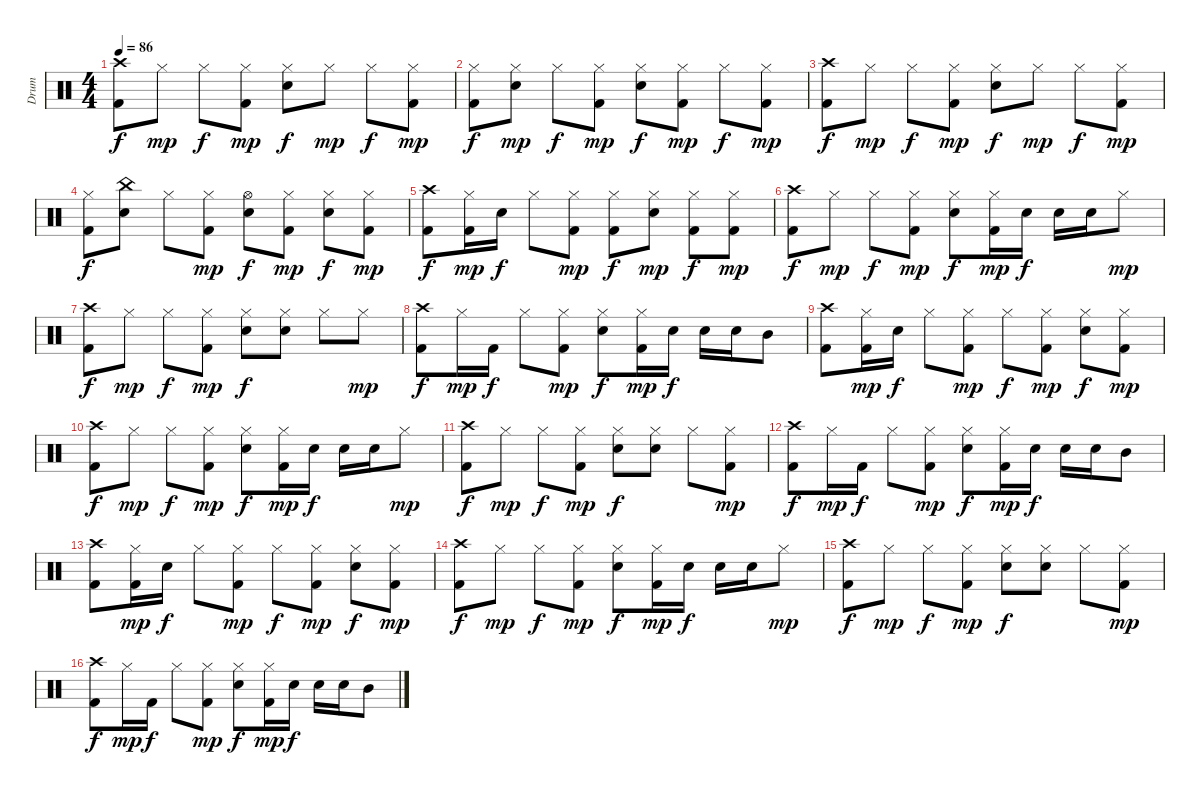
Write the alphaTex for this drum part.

\track ("Drum" "Drum") {instrument percussion}
\staff {score}
\articulation defaults
\ts (4 4)
\tempo 86
\clef neutral
\ks c
("Crash high (hit)" "Kick (hit) 2").8{dy f} "Hi-Hat (closed)".8{dy mp} "Hi-Hat (closed)".8{dy f} ("Hi-Hat (closed)" "Kick (hit) 2").8{dy mp} ("Hi-Hat (closed)" "Electric Snare (hit)").8{dy f} "Hi-Hat (closed)".8{dy mp} "Hi-Hat (closed)".8{dy f} ("Hi-Hat (closed)" "Kick (hit) 2").8{dy mp} |
("Hi-Hat (closed)" "Kick (hit) 2").8{dy f} ("Hi-Hat (closed)" "Electric Snare (hit)").8{dy mp} "Hi-Hat (closed)".8{dy f} ("Hi-Hat (closed)" "Kick (hit) 2").8{dy mp} ("Hi-Hat (closed)" "Electric Snare (hit)").8{dy f} ("Hi-Hat (closed)" "Kick (hit) 2").8{dy mp} "Hi-Hat (closed)".8{dy f} ("Hi-Hat (closed)" "Kick (hit) 2").8{dy mp} |
("Crash high (hit)" "Kick (hit) 2").8{dy f} "Hi-Hat (closed)".8{dy mp} "Hi-Hat (closed)".8{dy f} ("Hi-Hat (closed)" "Kick (hit) 2").8{dy mp} ("Hi-Hat (closed)" "Electric Snare (hit)").8{dy f} "Hi-Hat (closed)".8{dy mp} "Hi-Hat (closed)".8{dy f} ("Hi-Hat (closed)" "Kick (hit) 2").8{dy mp} |
("Hi-Hat (closed)" "Kick (hit) 2").8{dy f} ("China (hit)" "Electric Snare (hit)").8 "Hi-Hat (closed)".8 ("Hi-Hat (closed)" "Kick (hit) 2").8{dy mp} ("Hi-Hat (open)" "Electric Snare (hit)").8{dy f} ("Hi-Hat (closed)" "Kick (hit) 2").8{dy mp} ("Hi-Hat (closed)" "Electric Snare (hit)").8{dy f} ("Hi-Hat (closed)" "Kick (hit) 2").8{dy mp} |
("Crash high (hit)" "Kick (hit) 2").8{dy f} ("Hi-Hat (closed)" "Kick (hit) 2").16{dy mp} "Electric Snare (hit)".16{dy f} "Hi-Hat (closed)".8 ("Hi-Hat (closed)" "Kick (hit) 2").8{dy mp} ("Hi-Hat (closed)" "Kick (hit) 2").8{dy f} ("Hi-Hat (closed)" "Electric Snare (hit)").8{dy mp} ("Hi-Hat (closed)" "Kick (hit) 2").8{dy f} ("Hi-Hat (closed)" "Kick (hit) 2").8{dy mp} |
("Crash high (hit)" "Kick (hit) 2").8{dy f} "Hi-Hat (closed)".8{dy mp} "Hi-Hat (closed)".8{dy f} ("Hi-Hat (closed)" "Kick (hit) 2").8{dy mp} ("Hi-Hat (closed)" "Electric Snare (hit)").8{dy f} ("Hi-Hat (closed)" "Kick (hit) 2").16{dy mp} "Electric Snare (hit)".16{dy f} "Electric Snare (hit)".16 "Electric Snare (hit)".16 "Hi-Hat (closed)".8{dy mp} |
("Crash high (hit)" "Kick (hit) 2").8{dy f} "Hi-Hat (closed)".8{dy mp} "Hi-Hat (closed)".8{dy f} ("Hi-Hat (closed)" "Kick (hit) 2").8{dy mp} ("Hi-Hat (closed)" "Electric Snare (hit)").8{dy f} ("Hi-Hat (closed)" "Electric Snare (hit)").8 "Hi-Hat (closed)".8 "Hi-Hat (closed)".8{dy mp} |
("Crash high (hit)" "Kick (hit) 2").8{dy f} "Hi-Hat (closed)".16{dy mp} "Kick (hit) 2".16{dy f} "Hi-Hat (closed)".8 ("Hi-Hat (closed)" "Kick (hit) 2").8{dy mp} ("Hi-Hat (closed)" "Electric Snare (hit)").8{dy f} ("Hi-Hat (closed)" "Kick (hit) 2").16{dy mp} "Electric Snare (hit)".16{dy f} "Electric Snare (hit)".16 "Electric Snare (hit)".16 "Mid Tom (hit)".8 |
("Crash high (hit)" "Kick (hit) 2").8 ("Hi-Hat (closed)" "Kick (hit) 2").16{dy mp} "Electric Snare (hit)".16{dy f} "Hi-Hat (closed)".8 ("Hi-Hat (closed)" "Kick (hit) 2").8{dy mp} "Hi-Hat (closed)".8{dy f} ("Hi-Hat (closed)" "Kick (hit) 2").8{dy mp} ("Hi-Hat (closed)" "Electric Snare (hit)").8{dy f} ("Hi-Hat (closed)" "Kick (hit) 2").8{dy mp} |
("Crash high (hit)" "Kick (hit) 2").8{dy f} "Hi-Hat (closed)".8{dy mp} "Hi-Hat (closed)".8{dy f} ("Hi-Hat (closed)" "Kick (hit) 2").8{dy mp} ("Hi-Hat (closed)" "Electric Snare (hit)").8{dy f} ("Hi-Hat (closed)" "Kick (hit) 2").16{dy mp} "Electric Snare (hit)".16{dy f} "Electric Snare (hit)".16 "Electric Snare (hit)".16 "Hi-Hat (closed)".8{dy mp} |
("Crash high (hit)" "Kick (hit) 2").8{dy f} "Hi-Hat (closed)".8{dy mp} "Hi-Hat (closed)".8{dy f} ("Hi-Hat (closed)" "Kick (hit) 2").8{dy mp} ("Hi-Hat (closed)" "Electric Snare (hit)").8{dy f} ("Hi-Hat (closed)" "Electric Snare (hit)").8 "Hi-Hat (closed)".8 ("Hi-Hat (closed)" "Kick (hit) 2").8{dy mp} |
("Crash high (hit)" "Kick (hit) 2").8{dy f} "Hi-Hat (closed)".16{dy mp} "Kick (hit) 2".16{dy f} "Hi-Hat (closed)".8 ("Hi-Hat (closed)" "Kick (hit) 2").8{dy mp} ("Hi-Hat (closed)" "Electric Snare (hit)").8{dy f} ("Hi-Hat (closed)" "Kick (hit) 2").16{dy mp} "Electric Snare (hit)".16{dy f} "Electric Snare (hit)".16 "Electric Snare (hit)".16 "Mid Tom (hit)".8 |
("Crash high (hit)" "Kick (hit) 2").8 ("Hi-Hat (closed)" "Kick (hit) 2").16{dy mp} "Electric Snare (hit)".16{dy f} "Hi-Hat (closed)".8 ("Hi-Hat (closed)" "Kick (hit) 2").8{dy mp} "Hi-Hat (closed)".8{dy f} ("Hi-Hat (closed)" "Kick (hit) 2").8{dy mp} ("Hi-Hat (closed)" "Electric Snare (hit)").8{dy f} ("Hi-Hat (closed)" "Kick (hit) 2").8{dy mp} |
("Crash high (hit)" "Kick (hit) 2").8{dy f} "Hi-Hat (closed)".8{dy mp} "Hi-Hat (closed)".8{dy f} ("Hi-Hat (closed)" "Kick (hit) 2").8{dy mp} ("Hi-Hat (closed)" "Electric Snare (hit)").8{dy f} ("Hi-Hat (closed)" "Kick (hit) 2").16{dy mp} "Electric Snare (hit)".16{dy f} "Electric Snare (hit)".16 "Electric Snare (hit)".16 "Hi-Hat (closed)".8{dy mp} |
("Crash high (hit)" "Kick (hit) 2").8{dy f} "Hi-Hat (closed)".8{dy mp} "Hi-Hat (closed)".8{dy f} ("Hi-Hat (closed)" "Kick (hit) 2").8{dy mp} ("Hi-Hat (closed)" "Electric Snare (hit)").8{dy f} ("Hi-Hat (closed)" "Electric Snare (hit)").8 "Hi-Hat (closed)".8 ("Hi-Hat (closed)" "Kick (hit) 2").8{dy mp} |
("Crash high (hit)" "Kick (hit) 2").8{dy f} "Hi-Hat (closed)".16{dy mp} "Kick (hit) 2".16{dy f} "Hi-Hat (closed)".8 ("Hi-Hat (closed)" "Kick (hit) 2").8{dy mp} ("Hi-Hat (closed)" "Electric Snare (hit)").8{dy f} ("Hi-Hat (closed)" "Kick (hit) 2").16{dy mp} "Electric Snare (hit)".16{dy f} "Electric Snare (hit)".16 "Electric Snare (hit)".16 "Mid Tom (hit)".8
